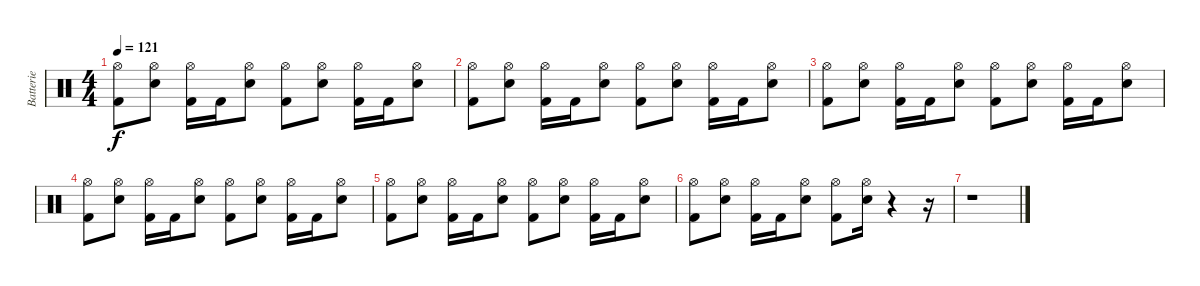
\track ("Batterie" "Batterie") {instrument percussion}
\staff {score}
\articulation defaults
\ts (4 4)
\tempo 121
\clef neutral
\ks c
("Kick (hit) 2" "Hi-Hat (open)").8{dy f} ("Electric Snare (hit)" "Hi-Hat (open)").8 ("Kick (hit) 2" "Hi-Hat (open)").16 "Kick (hit) 2".16 ("Electric Snare (hit)" "Hi-Hat (open)").8 ("Kick (hit) 2" "Hi-Hat (open)").8 ("Electric Snare (hit)" "Hi-Hat (open)").8 ("Kick (hit) 2" "Hi-Hat (open)").16 "Kick (hit) 2".16 ("Electric Snare (hit)" "Hi-Hat (open)").8 |
("Kick (hit) 2" "Hi-Hat (open)").8 ("Electric Snare (hit)" "Hi-Hat (open)").8 ("Kick (hit) 2" "Hi-Hat (open)").16 "Kick (hit) 2".16 ("Electric Snare (hit)" "Hi-Hat (open)").8 ("Kick (hit) 2" "Hi-Hat (open)").8 ("Electric Snare (hit)" "Hi-Hat (open)").8 ("Kick (hit) 2" "Hi-Hat (open)").16 "Kick (hit) 2".16 ("Electric Snare (hit)" "Hi-Hat (open)").8 |
("Kick (hit) 2" "Hi-Hat (open)").8 ("Electric Snare (hit)" "Hi-Hat (open)").8 ("Kick (hit) 2" "Hi-Hat (open)").16 "Kick (hit) 2".16 ("Electric Snare (hit)" "Hi-Hat (open)").8 ("Kick (hit) 2" "Hi-Hat (open)").8 ("Electric Snare (hit)" "Hi-Hat (open)").8 ("Kick (hit) 2" "Hi-Hat (open)").16 "Kick (hit) 2".16 ("Electric Snare (hit)" "Hi-Hat (open)").8 |
("Kick (hit) 2" "Hi-Hat (open)").8 ("Electric Snare (hit)" "Hi-Hat (open)").8 ("Kick (hit) 2" "Hi-Hat (open)").16 "Kick (hit) 2".16 ("Electric Snare (hit)" "Hi-Hat (open)").8 ("Kick (hit) 2" "Hi-Hat (open)").8 ("Electric Snare (hit)" "Hi-Hat (open)").8 ("Kick (hit) 2" "Hi-Hat (open)").16 "Kick (hit) 2".16 ("Electric Snare (hit)" "Hi-Hat (open)").8 |
("Kick (hit) 2" "Hi-Hat (open)").8 ("Electric Snare (hit)" "Hi-Hat (open)").8 ("Kick (hit) 2" "Hi-Hat (open)").16 "Kick (hit) 2".16 ("Electric Snare (hit)" "Hi-Hat (open)").8 ("Kick (hit) 2" "Hi-Hat (open)").8 ("Electric Snare (hit)" "Hi-Hat (open)").8 ("Kick (hit) 2" "Hi-Hat (open)").16 "Kick (hit) 2".16 ("Electric Snare (hit)" "Hi-Hat (open)").8 |
("Kick (hit) 2" "Hi-Hat (open)").8 ("Electric Snare (hit)" "Hi-Hat (open)").8 ("Kick (hit) 2" "Hi-Hat (open)").16 "Kick (hit) 2".16 ("Electric Snare (hit)" "Hi-Hat (open)").8 ("Kick (hit) 2" "Hi-Hat (open)").8 ("Electric Snare (hit)" "Hi-Hat (open)").16 r.4 r.16 |
r.1
